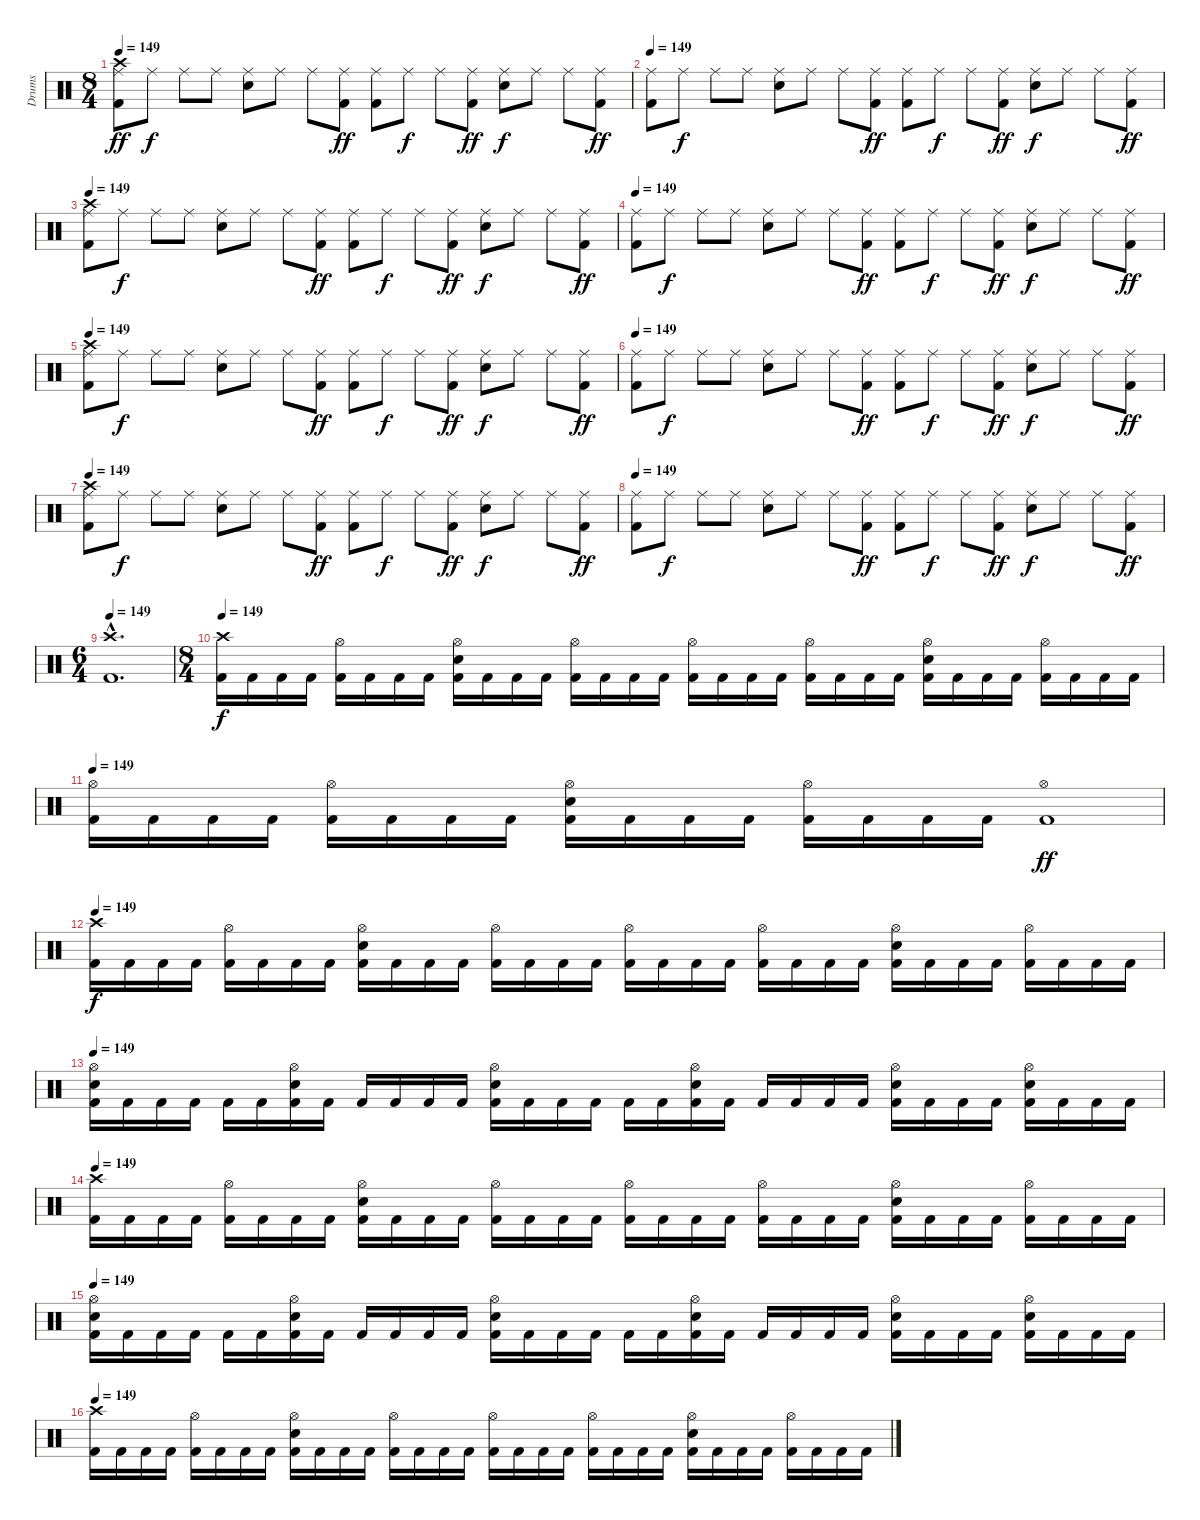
\track ("Drums" "Drums") {instrument percussion}
\staff {score}
\articulation defaults
\ts (8 4)
\tempo 149
\clef neutral
\ks c
("Crash high (hit)" "Ride (middle)" "Kick (hit) 2").8{dy ff} "Ride (middle)".8{dy f} "Ride (middle)".8 "Ride (middle)".8 ("Ride (middle)" "Electric Snare (hit)").8 "Ride (middle)".8 "Ride (middle)".8 ("Ride (middle)" "Kick (hit) 2").8{dy ff} ("Ride (middle)" "Kick (hit) 2").8 "Ride (middle)".8{dy f} "Ride (middle)".8 ("Ride (middle)" "Kick (hit) 2").8{dy ff} ("Ride (middle)" "Electric Snare (hit)").8{dy f} "Ride (middle)".8 "Ride (middle)".8 ("Ride (middle)" "Kick (hit) 2").8{dy ff} |
\tempo 149
("Ride (middle)" "Kick (hit) 2").8 "Ride (middle)".8{dy f} "Ride (middle)".8 "Ride (middle)".8 ("Ride (middle)" "Electric Snare (hit)").8 "Ride (middle)".8 "Ride (middle)".8 ("Ride (middle)" "Kick (hit) 2").8{dy ff} ("Ride (middle)" "Kick (hit) 2").8 "Ride (middle)".8{dy f} "Ride (middle)".8 ("Ride (middle)" "Kick (hit) 2").8{dy ff} ("Ride (middle)" "Electric Snare (hit)").8{dy f} "Ride (middle)".8 "Ride (middle)".8 ("Ride (middle)" "Kick (hit) 2").8{dy ff} |
\tempo 149
("Crash high (hit)" "Ride (middle)" "Kick (hit) 2").8 "Ride (middle)".8{dy f} "Ride (middle)".8 "Ride (middle)".8 ("Ride (middle)" "Electric Snare (hit)").8 "Ride (middle)".8 "Ride (middle)".8 ("Ride (middle)" "Kick (hit) 2").8{dy ff} ("Ride (middle)" "Kick (hit) 2").8 "Ride (middle)".8{dy f} "Ride (middle)".8 ("Ride (middle)" "Kick (hit) 2").8{dy ff} ("Ride (middle)" "Electric Snare (hit)").8{dy f} "Ride (middle)".8 "Ride (middle)".8 ("Ride (middle)" "Kick (hit) 2").8{dy ff} |
\tempo 149
("Ride (middle)" "Kick (hit) 2").8 "Ride (middle)".8{dy f} "Ride (middle)".8 "Ride (middle)".8 ("Ride (middle)" "Electric Snare (hit)").8 "Ride (middle)".8 "Ride (middle)".8 ("Ride (middle)" "Kick (hit) 2").8{dy ff} ("Ride (middle)" "Kick (hit) 2").8 "Ride (middle)".8{dy f} "Ride (middle)".8 ("Ride (middle)" "Kick (hit) 2").8{dy ff} ("Ride (middle)" "Electric Snare (hit)").8{dy f} "Ride (middle)".8 "Ride (middle)".8 ("Ride (middle)" "Kick (hit) 2").8{dy ff} |
\tempo 149
("Crash high (hit)" "Ride (middle)" "Kick (hit) 2").8 "Ride (middle)".8{dy f} "Ride (middle)".8 "Ride (middle)".8 ("Ride (middle)" "Electric Snare (hit)").8 "Ride (middle)".8 "Ride (middle)".8 ("Ride (middle)" "Kick (hit) 2").8{dy ff} ("Ride (middle)" "Kick (hit) 2").8 "Ride (middle)".8{dy f} "Ride (middle)".8 ("Ride (middle)" "Kick (hit) 2").8{dy ff} ("Ride (middle)" "Electric Snare (hit)").8{dy f} "Ride (middle)".8 "Ride (middle)".8 ("Ride (middle)" "Kick (hit) 2").8{dy ff} |
\tempo 149
("Ride (middle)" "Kick (hit) 2").8 "Ride (middle)".8{dy f} "Ride (middle)".8 "Ride (middle)".8 ("Ride (middle)" "Electric Snare (hit)").8 "Ride (middle)".8 "Ride (middle)".8 ("Ride (middle)" "Kick (hit) 2").8{dy ff} ("Ride (middle)" "Kick (hit) 2").8 "Ride (middle)".8{dy f} "Ride (middle)".8 ("Ride (middle)" "Kick (hit) 2").8{dy ff} ("Ride (middle)" "Electric Snare (hit)").8{dy f} "Ride (middle)".8 "Ride (middle)".8 ("Ride (middle)" "Kick (hit) 2").8{dy ff} |
\tempo 149
("Crash high (hit)" "Ride (middle)" "Kick (hit) 2").8 "Ride (middle)".8{dy f} "Ride (middle)".8 "Ride (middle)".8 ("Ride (middle)" "Electric Snare (hit)").8 "Ride (middle)".8 "Ride (middle)".8 ("Ride (middle)" "Kick (hit) 2").8{dy ff} ("Ride (middle)" "Kick (hit) 2").8 "Ride (middle)".8{dy f} "Ride (middle)".8 ("Ride (middle)" "Kick (hit) 2").8{dy ff} ("Ride (middle)" "Electric Snare (hit)").8{dy f} "Ride (middle)".8 "Ride (middle)".8 ("Ride (middle)" "Kick (hit) 2").8{dy ff} |
\tempo 149
("Ride (middle)" "Kick (hit) 2").8 "Ride (middle)".8{dy f} "Ride (middle)".8 "Ride (middle)".8 ("Ride (middle)" "Electric Snare (hit)").8 "Ride (middle)".8 "Ride (middle)".8 ("Ride (middle)" "Kick (hit) 2").8{dy ff} ("Ride (middle)" "Kick (hit) 2").8 "Ride (middle)".8{dy f} "Ride (middle)".8 ("Ride (middle)" "Kick (hit) 2").8{dy ff} ("Ride (middle)" "Electric Snare (hit)").8{dy f} "Ride (middle)".8 "Ride (middle)".8 ("Ride (middle)" "Kick (hit) 2").8{dy ff} |
\ts (6 4)
\tempo 149
("Crash high (hit)"{hac} "Kick (hit) 2"{hac}).1{d} |
\ts (8 4)
\tempo 149
("Crash high (hit)" "Kick (hit) 2").16{dy f} "Kick (hit) 2".16 "Kick (hit) 2".16 "Kick (hit) 2".16 ("Hi-Hat (open)" "Kick (hit) 2").16 "Kick (hit) 2".16 "Kick (hit) 2".16 "Kick (hit) 2".16 ("Hi-Hat (open)" "Electric Snare (hit)" "Kick (hit) 2").16 "Kick (hit) 2".16 "Kick (hit) 2".16 "Kick (hit) 2".16 ("Hi-Hat (open)" "Kick (hit) 2").16 "Kick (hit) 2".16 "Kick (hit) 2".16 "Kick (hit) 2".16 ("Hi-Hat (open)" "Kick (hit) 2").16 "Kick (hit) 2".16 "Kick (hit) 2".16 "Kick (hit) 2".16 ("Hi-Hat (open)" "Kick (hit) 2").16 "Kick (hit) 2".16 "Kick (hit) 2".16 "Kick (hit) 2".16 ("Hi-Hat (open)" "Electric Snare (hit)" "Kick (hit) 2").16 "Kick (hit) 2".16 "Kick (hit) 2".16 "Kick (hit) 2".16 ("Hi-Hat (open)" "Kick (hit) 2").16 "Kick (hit) 2".16 "Kick (hit) 2".16 "Kick (hit) 2".16 |
\tempo 149
("Hi-Hat (open)" "Kick (hit) 2").16 "Kick (hit) 2".16 "Kick (hit) 2".16 "Kick (hit) 2".16 ("Hi-Hat (open)" "Kick (hit) 2").16 "Kick (hit) 2".16 "Kick (hit) 2".16 "Kick (hit) 2".16 ("Hi-Hat (open)" "Electric Snare (hit)" "Kick (hit) 2").16 "Kick (hit) 2".16 "Kick (hit) 2".16 "Kick (hit) 2".16 ("Hi-Hat (open)" "Kick (hit) 2").16 "Kick (hit) 2".16 "Kick (hit) 2".16 "Kick (hit) 2".16 ("Hi-Hat (open)" "Kick (hit) 2").1{dy ff} |
\tempo 149
("Crash high (hit)" "Kick (hit) 2").16{dy f} "Kick (hit) 2".16 "Kick (hit) 2".16 "Kick (hit) 2".16 ("Hi-Hat (open)" "Kick (hit) 2").16 "Kick (hit) 2".16 "Kick (hit) 2".16 "Kick (hit) 2".16 ("Hi-Hat (open)" "Electric Snare (hit)" "Kick (hit) 2").16 "Kick (hit) 2".16 "Kick (hit) 2".16 "Kick (hit) 2".16 ("Hi-Hat (open)" "Kick (hit) 2").16 "Kick (hit) 2".16 "Kick (hit) 2".16 "Kick (hit) 2".16 ("Hi-Hat (open)" "Kick (hit) 2").16 "Kick (hit) 2".16 "Kick (hit) 2".16 "Kick (hit) 2".16 ("Hi-Hat (open)" "Kick (hit) 2").16 "Kick (hit) 2".16 "Kick (hit) 2".16 "Kick (hit) 2".16 ("Hi-Hat (open)" "Electric Snare (hit)" "Kick (hit) 2").16 "Kick (hit) 2".16 "Kick (hit) 2".16 "Kick (hit) 2".16 ("Hi-Hat (open)" "Kick (hit) 2").16 "Kick (hit) 2".16 "Kick (hit) 2".16 "Kick (hit) 2".16 |
\tempo 149
("Hi-Hat (open)" "Electric Snare (hit)" "Kick (hit) 2").16 "Kick (hit) 2".16 "Kick (hit) 2".16 "Kick (hit) 2".16 "Kick (hit) 2".16 "Kick (hit) 2".16 ("Hi-Hat (open)" "Electric Snare (hit)" "Kick (hit) 2").16 "Kick (hit) 2".16 "Kick (hit) 2".16 "Kick (hit) 2".16 "Kick (hit) 2".16 "Kick (hit) 2".16 ("Hi-Hat (open)" "Electric Snare (hit)" "Kick (hit) 2").16 "Kick (hit) 2".16 "Kick (hit) 2".16 "Kick (hit) 2".16 "Kick (hit) 2".16 "Kick (hit) 2".16 ("Hi-Hat (open)" "Electric Snare (hit)" "Kick (hit) 2").16 "Kick (hit) 2".16 "Kick (hit) 2".16 "Kick (hit) 2".16 "Kick (hit) 2".16 "Kick (hit) 2".16 ("Hi-Hat (open)" "Electric Snare (hit)" "Kick (hit) 2").16 "Kick (hit) 2".16 "Kick (hit) 2".16 "Kick (hit) 2".16 ("Hi-Hat (open)" "Electric Snare (hit)" "Kick (hit) 2").16 "Kick (hit) 2".16 "Kick (hit) 2".16 "Kick (hit) 2".16 |
\tempo 149
("Crash high (hit)" "Kick (hit) 2").16 "Kick (hit) 2".16 "Kick (hit) 2".16 "Kick (hit) 2".16 ("Hi-Hat (open)" "Kick (hit) 2").16 "Kick (hit) 2".16 "Kick (hit) 2".16 "Kick (hit) 2".16 ("Hi-Hat (open)" "Electric Snare (hit)" "Kick (hit) 2").16 "Kick (hit) 2".16 "Kick (hit) 2".16 "Kick (hit) 2".16 ("Hi-Hat (open)" "Kick (hit) 2").16 "Kick (hit) 2".16 "Kick (hit) 2".16 "Kick (hit) 2".16 ("Hi-Hat (open)" "Kick (hit) 2").16 "Kick (hit) 2".16 "Kick (hit) 2".16 "Kick (hit) 2".16 ("Hi-Hat (open)" "Kick (hit) 2").16 "Kick (hit) 2".16 "Kick (hit) 2".16 "Kick (hit) 2".16 ("Hi-Hat (open)" "Electric Snare (hit)" "Kick (hit) 2").16 "Kick (hit) 2".16 "Kick (hit) 2".16 "Kick (hit) 2".16 ("Hi-Hat (open)" "Kick (hit) 2").16 "Kick (hit) 2".16 "Kick (hit) 2".16 "Kick (hit) 2".16 |
\tempo 149
("Hi-Hat (open)" "Electric Snare (hit)" "Kick (hit) 2").16 "Kick (hit) 2".16 "Kick (hit) 2".16 "Kick (hit) 2".16 "Kick (hit) 2".16 "Kick (hit) 2".16 ("Hi-Hat (open)" "Electric Snare (hit)" "Kick (hit) 2").16 "Kick (hit) 2".16 "Kick (hit) 2".16 "Kick (hit) 2".16 "Kick (hit) 2".16 "Kick (hit) 2".16 ("Hi-Hat (open)" "Electric Snare (hit)" "Kick (hit) 2").16 "Kick (hit) 2".16 "Kick (hit) 2".16 "Kick (hit) 2".16 "Kick (hit) 2".16 "Kick (hit) 2".16 ("Hi-Hat (open)" "Electric Snare (hit)" "Kick (hit) 2").16 "Kick (hit) 2".16 "Kick (hit) 2".16 "Kick (hit) 2".16 "Kick (hit) 2".16 "Kick (hit) 2".16 ("Hi-Hat (open)" "Electric Snare (hit)" "Kick (hit) 2").16 "Kick (hit) 2".16 "Kick (hit) 2".16 "Kick (hit) 2".16 ("Hi-Hat (open)" "Electric Snare (hit)" "Kick (hit) 2").16 "Kick (hit) 2".16 "Kick (hit) 2".16 "Kick (hit) 2".16 |
\tempo 149
("Crash high (hit)" "Kick (hit) 2").16 "Kick (hit) 2".16 "Kick (hit) 2".16 "Kick (hit) 2".16 ("Hi-Hat (open)" "Kick (hit) 2").16 "Kick (hit) 2".16 "Kick (hit) 2".16 "Kick (hit) 2".16 ("Hi-Hat (open)" "Electric Snare (hit)" "Kick (hit) 2").16 "Kick (hit) 2".16 "Kick (hit) 2".16 "Kick (hit) 2".16 ("Hi-Hat (open)" "Kick (hit) 2").16 "Kick (hit) 2".16 "Kick (hit) 2".16 "Kick (hit) 2".16 ("Hi-Hat (open)" "Kick (hit) 2").16 "Kick (hit) 2".16 "Kick (hit) 2".16 "Kick (hit) 2".16 ("Hi-Hat (open)" "Kick (hit) 2").16 "Kick (hit) 2".16 "Kick (hit) 2".16 "Kick (hit) 2".16 ("Hi-Hat (open)" "Electric Snare (hit)" "Kick (hit) 2").16 "Kick (hit) 2".16 "Kick (hit) 2".16 "Kick (hit) 2".16 ("Hi-Hat (open)" "Kick (hit) 2").16 "Kick (hit) 2".16 "Kick (hit) 2".16 "Kick (hit) 2".16
